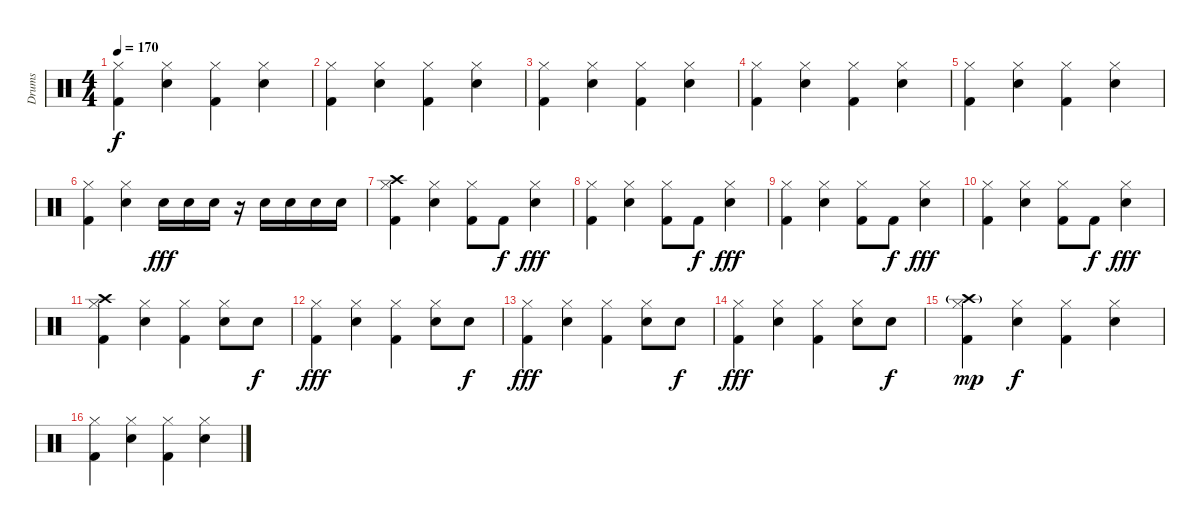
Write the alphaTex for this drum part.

\track ("Drums" "Drums") {instrument percussion}
\staff {score}
\articulation defaults
\ts (4 4)
\tempo 170
\clef neutral
\ks c
("Hi-Hat (closed)" "Kick (hit) 2").4{dy f} ("Hi-Hat (closed)" "Electric Snare (hit)").4 ("Hi-Hat (closed)" "Kick (hit) 2").4 ("Hi-Hat (closed)" "Electric Snare (hit)").4 |
("Hi-Hat (closed)" "Kick (hit) 2").4 ("Hi-Hat (closed)" "Electric Snare (hit)").4 ("Hi-Hat (closed)" "Kick (hit) 2").4 ("Hi-Hat (closed)" "Electric Snare (hit)").4 |
("Hi-Hat (closed)" "Kick (hit) 2").4 ("Hi-Hat (closed)" "Electric Snare (hit)").4 ("Hi-Hat (closed)" "Kick (hit) 2").4 ("Hi-Hat (closed)" "Electric Snare (hit)").4 |
("Hi-Hat (closed)" "Kick (hit) 2").4 ("Hi-Hat (closed)" "Electric Snare (hit)").4 ("Hi-Hat (closed)" "Kick (hit) 2").4 ("Hi-Hat (closed)" "Electric Snare (hit)").4 |
("Hi-Hat (closed)" "Kick (hit) 2").4 ("Hi-Hat (closed)" "Electric Snare (hit)").4 ("Hi-Hat (closed)" "Kick (hit) 2").4 ("Hi-Hat (closed)" "Electric Snare (hit)").4 |
("Hi-Hat (closed)" "Kick (hit) 2").4 ("Hi-Hat (closed)" "Electric Snare (hit)").4 "Electric Snare (hit)".16{dy fff} "Electric Snare (hit)".16 "Electric Snare (hit)".16 r.16 "Electric Snare (hit)".16 "Electric Snare (hit)".16 "Electric Snare (hit)".16 "Electric Snare (hit)".16 |
("Crash high (hit)" "Hi-Hat (closed)" "Kick (hit) 2").4 ("Hi-Hat (closed)" "Electric Snare (hit)").4 ("Hi-Hat (closed)" "Kick (hit) 2").8 "Kick (hit) 2".8{dy f} ("Hi-Hat (closed)" "Electric Snare (hit)").4{dy fff} |
("Hi-Hat (closed)" "Kick (hit) 2").4 ("Hi-Hat (closed)" "Electric Snare (hit)").4 ("Hi-Hat (closed)" "Kick (hit) 2").8 "Kick (hit) 2".8{dy f} ("Hi-Hat (closed)" "Electric Snare (hit)").4{dy fff} |
("Hi-Hat (closed)" "Kick (hit) 2").4 ("Hi-Hat (closed)" "Electric Snare (hit)").4 ("Hi-Hat (closed)" "Kick (hit) 2").8 "Kick (hit) 2".8{dy f} ("Hi-Hat (closed)" "Electric Snare (hit)").4{dy fff} |
("Hi-Hat (closed)" "Kick (hit) 2").4 ("Hi-Hat (closed)" "Electric Snare (hit)").4 ("Hi-Hat (closed)" "Kick (hit) 2").8 "Kick (hit) 2".8{dy f} ("Hi-Hat (closed)" "Electric Snare (hit)").4{dy fff} |
("Crash high (hit)" "Hi-Hat (closed)" "Kick (hit) 2").4 ("Hi-Hat (closed)" "Electric Snare (hit)").4 ("Hi-Hat (closed)" "Kick (hit) 2").4 ("Hi-Hat (closed)" "Electric Snare (hit)").8 "Electric Snare (hit)".8{dy f} |
("Hi-Hat (closed)" "Kick (hit) 2").4{dy fff} ("Hi-Hat (closed)" "Electric Snare (hit)").4 ("Hi-Hat (closed)" "Kick (hit) 2").4 ("Hi-Hat (closed)" "Electric Snare (hit)").8 "Electric Snare (hit)".8{dy f} |
("Hi-Hat (closed)" "Kick (hit) 2").4{dy fff} ("Hi-Hat (closed)" "Electric Snare (hit)").4 ("Hi-Hat (closed)" "Kick (hit) 2").4 ("Hi-Hat (closed)" "Electric Snare (hit)").8 "Electric Snare (hit)".8{dy f} |
("Hi-Hat (closed)" "Kick (hit) 2").4{dy fff} ("Hi-Hat (closed)" "Electric Snare (hit)").4 ("Hi-Hat (closed)" "Kick (hit) 2").4 ("Hi-Hat (closed)" "Electric Snare (hit)").8 "Electric Snare (hit)".8{dy f} |
("Crash high (hit)"{g} "Hi-Hat (closed)" "Kick (hit) 2").4{dy mp} ("Hi-Hat (closed)" "Electric Snare (hit)").4{dy f} ("Hi-Hat (closed)" "Kick (hit) 2").4 ("Hi-Hat (closed)" "Electric Snare (hit)").4 |
("Hi-Hat (closed)" "Kick (hit) 2").4 ("Hi-Hat (closed)" "Electric Snare (hit)").4 ("Hi-Hat (closed)" "Kick (hit) 2").4 ("Hi-Hat (closed)" "Electric Snare (hit)").4
